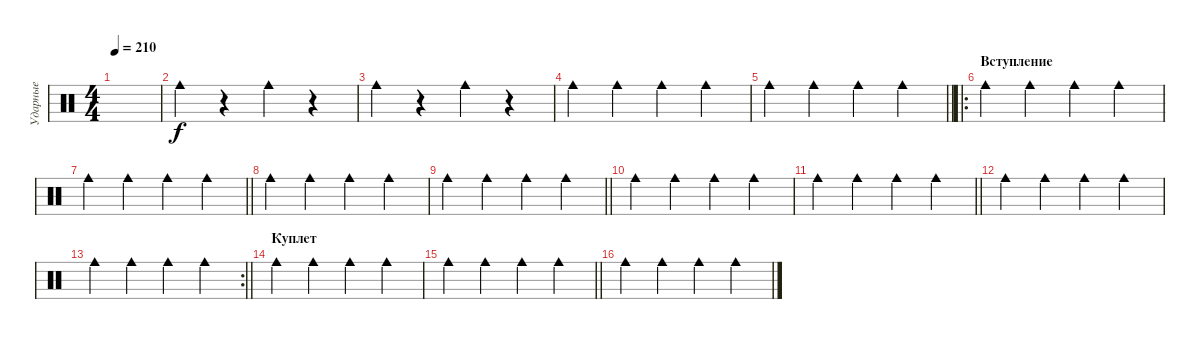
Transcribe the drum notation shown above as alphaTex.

\track ("Ударные" "Ударные") {mute instrument percussion}
\staff {score}
\articulation defaults
\ts (4 4)
\tempo 210
\clef neutral
\ks c
|
"Cowbell medium (hit)".4 r.4 "Cowbell medium (hit)".4 r.4 |
"Cowbell medium (hit)".4 r.4 "Cowbell medium (hit)".4 r.4 |
"Cowbell medium (hit)".4 "Cowbell medium (hit)".4 "Cowbell medium (hit)".4 "Cowbell medium (hit)".4 |
\barLineRight lightlight "Cowbell medium (hit)".4 "Cowbell medium (hit)".4 "Cowbell medium (hit)".4 "Cowbell medium (hit)".4
|
\ro
\section ("" "Вступление")
"Cowbell medium (hit)".4 "Cowbell medium (hit)".4 "Cowbell medium (hit)".4 "Cowbell medium (hit)".4 |
\barLineRight lightlight "Cowbell medium (hit)".4 "Cowbell medium (hit)".4 "Cowbell medium (hit)".4 "Cowbell medium (hit)".4
|
"Cowbell medium (hit)".4 "Cowbell medium (hit)".4 "Cowbell medium (hit)".4 "Cowbell medium (hit)".4 |
\barLineRight lightlight "Cowbell medium (hit)".4 "Cowbell medium (hit)".4 "Cowbell medium (hit)".4 "Cowbell medium (hit)".4
|
"Cowbell medium (hit)".4 "Cowbell medium (hit)".4 "Cowbell medium (hit)".4 "Cowbell medium (hit)".4 |
\barLineRight lightlight "Cowbell medium (hit)".4 "Cowbell medium (hit)".4 "Cowbell medium (hit)".4 "Cowbell medium (hit)".4
|
"Cowbell medium (hit)".4 "Cowbell medium (hit)".4 "Cowbell medium (hit)".4 "Cowbell medium (hit)".4 |
\rc 2
\barLineRight lightlight "Cowbell medium (hit)".4 "Cowbell medium (hit)".4 "Cowbell medium (hit)".4 "Cowbell medium (hit)".4
|
\section ("" "Куплет")
"Cowbell medium (hit)".4 "Cowbell medium (hit)".4 "Cowbell medium (hit)".4 "Cowbell medium (hit)".4 |
\barLineRight lightlight "Cowbell medium (hit)".4 "Cowbell medium (hit)".4 "Cowbell medium (hit)".4 "Cowbell medium (hit)".4
|
"Cowbell medium (hit)".4 "Cowbell medium (hit)".4 "Cowbell medium (hit)".4 "Cowbell medium (hit)".4
